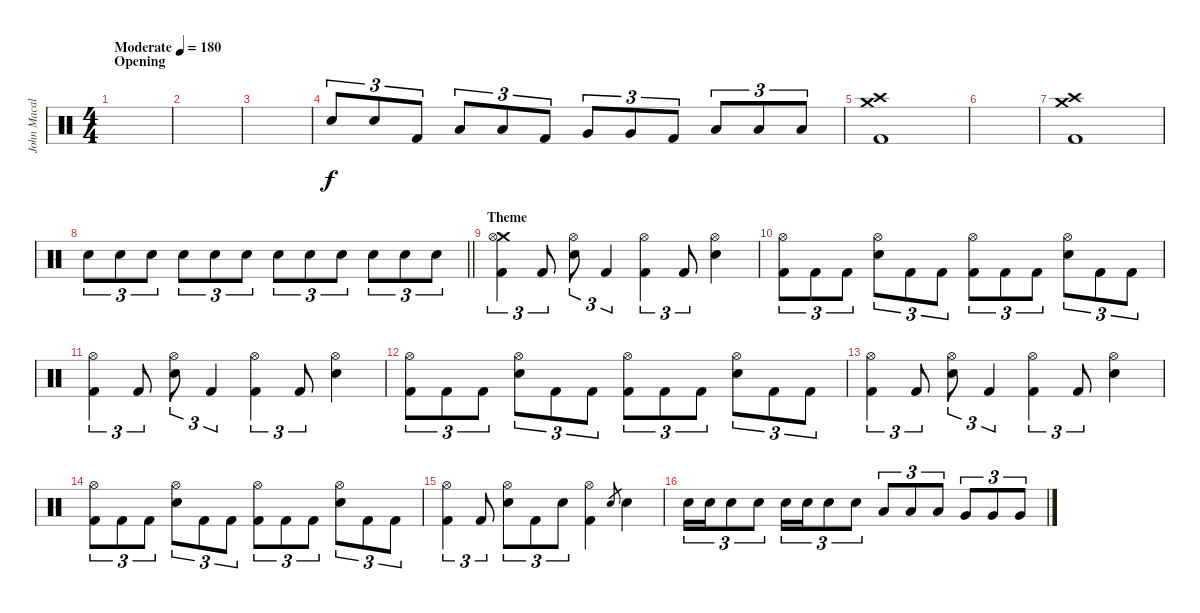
\track ("John Macaluso" "John Macal") {instrument percussion}
\staff {score}
\articulation defaults
\ts (4 4)
\section ("" "Opening")
\tempo (180 "Moderate")
\clef neutral
\ks c
|
|
|
"Snare (hit) 2".8{tu (3 2)} "Snare (hit) 2".8{tu (3 2)} "Kick (hit) 2".8{tu (3 2)} "Low Tom (hit)".8{tu (3 2)} "Low Tom (hit)".8{tu (3 2)} "Kick (hit) 2".8{tu (3 2)} "Very Low Tom (hit)".8{tu (3 2)} "Very Low Tom (hit)".8{tu (3 2)} "Kick (hit) 2".8{tu (3 2)} "Low Floor Tom (hit)".8{tu (3 2)} "Low Floor Tom (hit)".8{tu (3 2)} "Low Floor Tom (hit)".8{tu (3 2)} |
("Crash medium (hit)" "Crash high (hit)" "Kick (hit) 2").1 |
|
("Crash medium (hit)" "Crash high (hit)" "Kick (hit) 2").1 |
\barLineRight lightlight "Snare (hit) 2".8{tu (3 2)} "Snare (hit) 2".8{tu (3 2)} "Snare (hit) 2".8{tu (3 2)} "Snare (hit) 2".8{tu (3 2)} "Snare (hit) 2".8{tu (3 2)} "Snare (hit) 2".8{tu (3 2)} "Snare (hit) 2".8{tu (3 2)} "Snare (hit) 2".8{tu (3 2)} "Snare (hit) 2".8{tu (3 2)} "Snare (hit) 2".8{tu (3 2)} "Snare (hit) 2".8{tu (3 2)} "Snare (hit) 2".8{tu (3 2)}
|
\section ("" "Theme")
("Crash medium (hit)" "Hi-Hat (open)" "Kick (hit) 2").4{tu (3 2)} "Kick (hit) 2".8{tu (3 2)} ("Hi-Hat (open)" "Snare (hit) 2").8{tu (3 2)} "Kick (hit) 2".4{tu (3 2)} ("Hi-Hat (open)" "Kick (hit) 2").4{tu (3 2)} "Kick (hit) 2".8{tu (3 2)} ("Hi-Hat (open)" "Snare (hit) 2").4 |
("Hi-Hat (open)" "Kick (hit) 2").8{tu (3 2)} "Kick (hit) 2".8{tu (3 2)} "Kick (hit) 2".8{tu (3 2)} ("Hi-Hat (open)" "Snare (hit) 2").8{tu (3 2)} "Kick (hit) 2".8{tu (3 2)} "Kick (hit) 2".8{tu (3 2)} ("Hi-Hat (open)" "Kick (hit) 2").8{tu (3 2)} "Kick (hit) 2".8{tu (3 2)} "Kick (hit) 2".8{tu (3 2)} ("Hi-Hat (open)" "Snare (hit) 2").8{tu (3 2)} "Kick (hit) 2".8{tu (3 2)} "Kick (hit) 2".8{tu (3 2)} |
("Hi-Hat (open)" "Kick (hit) 2").4{tu (3 2)} "Kick (hit) 2".8{tu (3 2)} ("Hi-Hat (open)" "Snare (hit) 2").8{tu (3 2)} "Kick (hit) 2".4{tu (3 2)} ("Hi-Hat (open)" "Kick (hit) 2").4{tu (3 2)} "Kick (hit) 2".8{tu (3 2)} ("Hi-Hat (open)" "Snare (hit) 2").4 |
("Hi-Hat (open)" "Kick (hit) 2").8{tu (3 2)} "Kick (hit) 2".8{tu (3 2)} "Kick (hit) 2".8{tu (3 2)} ("Hi-Hat (open)" "Snare (hit) 2").8{tu (3 2)} "Kick (hit) 2".8{tu (3 2)} "Kick (hit) 2".8{tu (3 2)} ("Hi-Hat (open)" "Kick (hit) 2").8{tu (3 2)} "Kick (hit) 2".8{tu (3 2)} "Kick (hit) 2".8{tu (3 2)} ("Hi-Hat (open)" "Snare (hit) 2").8{tu (3 2)} "Kick (hit) 2".8{tu (3 2)} "Kick (hit) 2".8{tu (3 2)} |
("Hi-Hat (open)" "Kick (hit) 2").4{tu (3 2)} "Kick (hit) 2".8{tu (3 2)} ("Hi-Hat (open)" "Snare (hit) 2").8{tu (3 2)} "Kick (hit) 2".4{tu (3 2)} ("Hi-Hat (open)" "Kick (hit) 2").4{tu (3 2)} "Kick (hit) 2".8{tu (3 2)} ("Hi-Hat (open)" "Snare (hit) 2").4 |
("Hi-Hat (open)" "Kick (hit) 2").8{tu (3 2)} "Kick (hit) 2".8{tu (3 2)} "Kick (hit) 2".8{tu (3 2)} ("Hi-Hat (open)" "Snare (hit) 2").8{tu (3 2)} "Kick (hit) 2".8{tu (3 2)} "Kick (hit) 2".8{tu (3 2)} ("Hi-Hat (open)" "Kick (hit) 2").8{tu (3 2)} "Kick (hit) 2".8{tu (3 2)} "Kick (hit) 2".8{tu (3 2)} ("Hi-Hat (open)" "Snare (hit) 2").8{tu (3 2)} "Kick (hit) 2".8{tu (3 2)} "Kick (hit) 2".8{tu (3 2)} |
("Hi-Hat (open)" "Kick (hit) 2").4{tu (3 2)} "Kick (hit) 2".8{tu (3 2)} ("Hi-Hat (open)" "Snare (hit) 2").8{tu (3 2)} "Kick (hit) 2".8{tu (3 2)} "Snare (hit) 2".8{tu (3 2)} ("Hi-Hat (open)" "Kick (hit) 2").4 "Snare (hit) 2".8{gr} "Snare (hit) 2".4 |
"Snare (hit) 2".16{tu (3 2)} "Snare (hit) 2".16{tu (3 2)} "Snare (hit) 2".8{tu (3 2)} "Snare (hit) 2".8{tu (3 2)} "Snare (hit) 2".16{tu (3 2)} "Snare (hit) 2".16{tu (3 2)} "Snare (hit) 2".8{tu (3 2)} "Snare (hit) 2".8{tu (3 2)} "Low Tom (hit)".8{tu (3 2)} "Low Tom (hit)".8{tu (3 2)} "Low Tom (hit)".8{tu (3 2)} "Very Low Tom (hit)".8{tu (3 2)} "Very Low Tom (hit)".8{tu (3 2)} "Very Low Tom (hit)".8{tu (3 2)}
